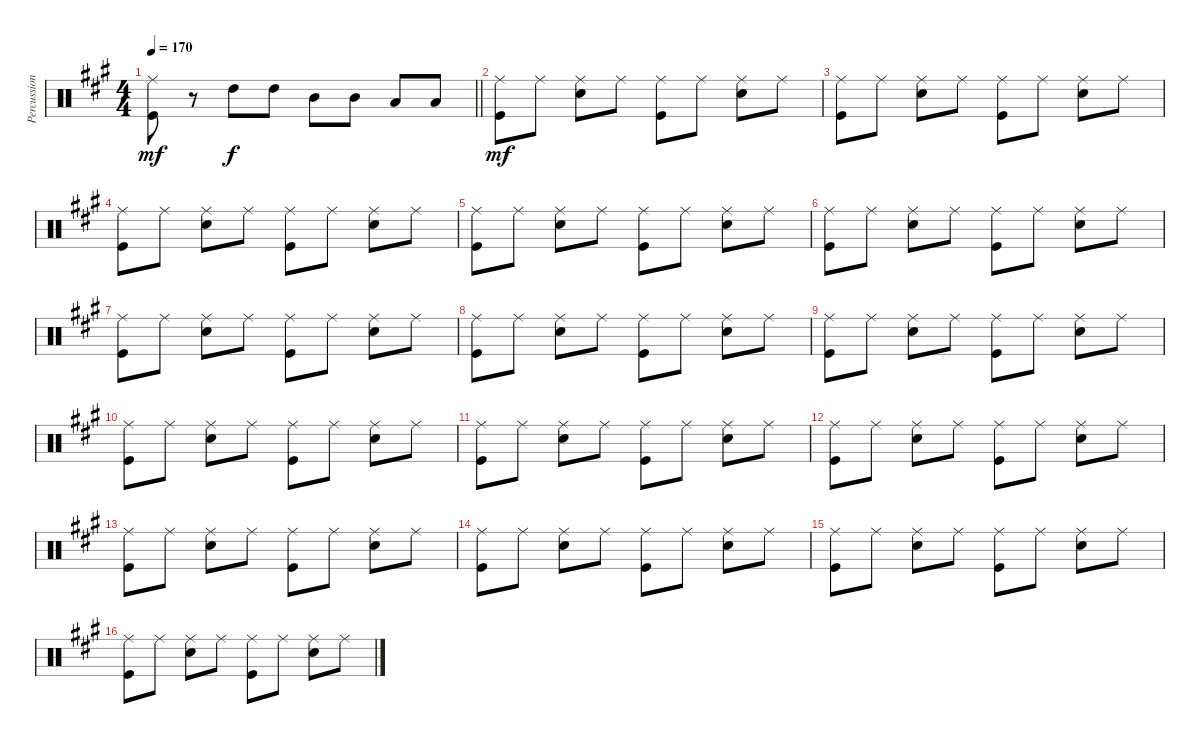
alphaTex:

\track ("Percussion" "Percussion") {instrument percussion}
\staff {score}
\articulation defaults
\ts (4 4)
\tempo 170
\clef neutral
\barLineRight lightlight
\ks a
("Ride (middle)" "Kick (hit)").8{dy mf} r.8 "High Tom (hit)".8{dy f} "High Tom (hit)".8 "Mid Tom (hit)".8 "Mid Tom (hit)".8 "Low Tom (hit)".8 "Low Tom (hit)".8 |
("Ride (middle)" "Kick (hit)").8{dy mf} "Ride (middle)".8 ("Ride (middle)" "Snare (hit) 2").8 "Ride (middle)".8 ("Ride (middle)" "Kick (hit)").8 "Ride (middle)".8 ("Ride (middle)" "Snare (hit) 2").8 "Ride (middle)".8 |
("Ride (middle)" "Kick (hit)").8 "Ride (middle)".8 ("Ride (middle)" "Snare (hit) 2").8 "Ride (middle)".8 ("Ride (middle)" "Kick (hit)").8 "Ride (middle)".8 ("Ride (middle)" "Snare (hit) 2").8 "Ride (middle)".8 |
("Ride (middle)" "Kick (hit)").8 "Ride (middle)".8 ("Ride (middle)" "Snare (hit) 2").8 "Ride (middle)".8 ("Ride (middle)" "Kick (hit)").8 "Ride (middle)".8 ("Ride (middle)" "Snare (hit) 2").8 "Ride (middle)".8 |
("Ride (middle)" "Kick (hit)").8 "Ride (middle)".8 ("Ride (middle)" "Snare (hit) 2").8 "Ride (middle)".8 ("Ride (middle)" "Kick (hit)").8 "Ride (middle)".8 ("Ride (middle)" "Snare (hit) 2").8 "Ride (middle)".8 |
("Ride (middle)" "Kick (hit)").8 "Ride (middle)".8 ("Ride (middle)" "Snare (hit) 2").8 "Ride (middle)".8 ("Ride (middle)" "Kick (hit)").8 "Ride (middle)".8 ("Ride (middle)" "Snare (hit) 2").8 "Ride (middle)".8 |
("Ride (middle)" "Kick (hit)").8 "Ride (middle)".8 ("Ride (middle)" "Snare (hit) 2").8 "Ride (middle)".8 ("Ride (middle)" "Kick (hit)").8 "Ride (middle)".8 ("Ride (middle)" "Snare (hit) 2").8 "Ride (middle)".8 |
("Ride (middle)" "Kick (hit)").8 "Ride (middle)".8 ("Ride (middle)" "Snare (hit) 2").8 "Ride (middle)".8 ("Ride (middle)" "Kick (hit)").8 "Ride (middle)".8 ("Ride (middle)" "Snare (hit) 2").8 "Ride (middle)".8 |
("Ride (middle)" "Kick (hit)").8 "Ride (middle)".8 ("Ride (middle)" "Snare (hit) 2").8 "Ride (middle)".8 ("Ride (middle)" "Kick (hit)").8 "Ride (middle)".8 ("Ride (middle)" "Snare (hit) 2").8 "Ride (middle)".8 |
("Ride (middle)" "Kick (hit)").8 "Ride (middle)".8 ("Ride (middle)" "Snare (hit) 2").8 "Ride (middle)".8 ("Ride (middle)" "Kick (hit)").8 "Ride (middle)".8 ("Ride (middle)" "Snare (hit) 2").8 "Ride (middle)".8 |
("Ride (middle)" "Kick (hit)").8 "Ride (middle)".8 ("Ride (middle)" "Snare (hit) 2").8 "Ride (middle)".8 ("Ride (middle)" "Kick (hit)").8 "Ride (middle)".8 ("Ride (middle)" "Snare (hit) 2").8 "Ride (middle)".8 |
("Ride (middle)" "Kick (hit)").8 "Ride (middle)".8 ("Ride (middle)" "Snare (hit) 2").8 "Ride (middle)".8 ("Ride (middle)" "Kick (hit)").8 "Ride (middle)".8 ("Ride (middle)" "Snare (hit) 2").8 "Ride (middle)".8 |
("Ride (middle)" "Kick (hit)").8 "Ride (middle)".8 ("Ride (middle)" "Snare (hit) 2").8 "Ride (middle)".8 ("Ride (middle)" "Kick (hit)").8 "Ride (middle)".8 ("Ride (middle)" "Snare (hit) 2").8 "Ride (middle)".8 |
("Ride (middle)" "Kick (hit)").8 "Ride (middle)".8 ("Ride (middle)" "Snare (hit) 2").8 "Ride (middle)".8 ("Ride (middle)" "Kick (hit)").8 "Ride (middle)".8 ("Ride (middle)" "Snare (hit) 2").8 "Ride (middle)".8 |
("Ride (middle)" "Kick (hit)").8 "Ride (middle)".8 ("Ride (middle)" "Snare (hit) 2").8 "Ride (middle)".8 ("Ride (middle)" "Kick (hit)").8 "Ride (middle)".8 ("Ride (middle)" "Snare (hit) 2").8 "Ride (middle)".8 |
("Ride (middle)" "Kick (hit)").8 "Ride (middle)".8 ("Ride (middle)" "Snare (hit) 2").8 "Ride (middle)".8 ("Ride (middle)" "Kick (hit)").8 "Ride (middle)".8 ("Ride (middle)" "Snare (hit) 2").8 "Ride (middle)".8
